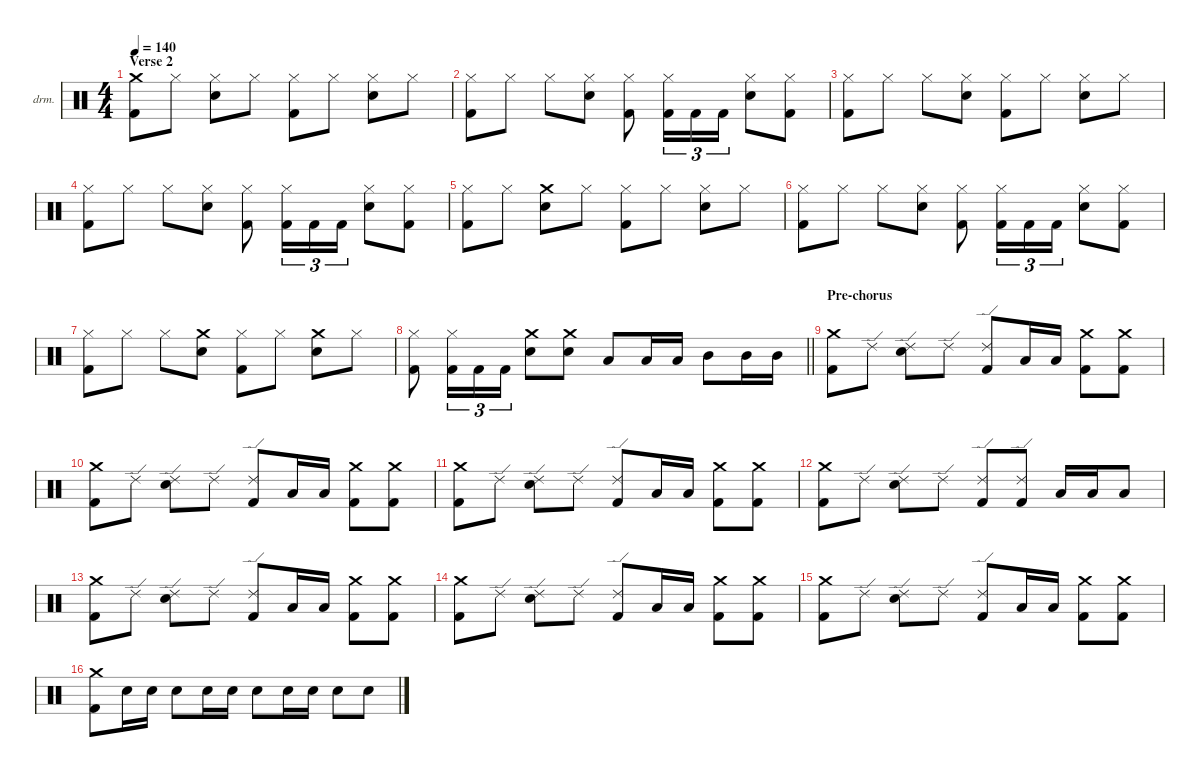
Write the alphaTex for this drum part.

\defaultSystemsLayout 4
\hideDynamics
\bracketExtendMode nobrackets
\firstSystemTrackNameOrientation horizontal
\otherSystemsTrackNameOrientation horizontal
\track ("Drums" "drm.") {instrument percussion}
\staff {score}
\articulation defaults
\ts (4 4)
\section ("" "Verse 2")
\tempo 140
\clef neutral
\ks c
("Kick (hit) 2" "Crash medium (hit)").8{dy f} "Hi-Hat (closed)".8 ("Snare (hit) 2" "Hi-Hat (closed)").8 "Hi-Hat (closed)".8 ("Kick (hit) 2" "Hi-Hat (closed)").8 "Hi-Hat (closed)".8 ("Snare (hit) 2" "Hi-Hat (closed)").8 "Hi-Hat (closed)".8 |
("Kick (hit) 2" "Hi-Hat (closed)").8 "Hi-Hat (closed)".8 "Hi-Hat (closed)".8 ("Snare (hit) 2" "Hi-Hat (closed)").8 ("Kick (hit) 2" "Hi-Hat (closed)").8 ("Kick (hit) 2" "Hi-Hat (closed)").16{tu (3 2)} "Kick (hit) 2".16{tu (3 2)} "Kick (hit) 2".16{tu (3 2)} ("Snare (hit) 2" "Hi-Hat (closed)").8 ("Kick (hit) 2" "Hi-Hat (closed)").8 |
("Hi-Hat (closed)" "Kick (hit) 2").8 "Hi-Hat (closed)".8 "Hi-Hat (closed)".8 ("Snare (hit) 2" "Hi-Hat (closed)").8 ("Hi-Hat (closed)" "Kick (hit) 2").8 "Hi-Hat (closed)".8 ("Snare (hit) 2" "Hi-Hat (closed)").8 "Hi-Hat (closed)".8 |
("Kick (hit) 2" "Hi-Hat (closed)").8 "Hi-Hat (closed)".8 "Hi-Hat (closed)".8 ("Snare (hit) 2" "Hi-Hat (closed)").8 ("Kick (hit) 2" "Hi-Hat (closed)").8 ("Kick (hit) 2" "Hi-Hat (closed)").16{tu (3 2)} "Kick (hit) 2".16{tu (3 2)} "Kick (hit) 2".16{tu (3 2)} ("Snare (hit) 2" "Hi-Hat (closed)").8 ("Kick (hit) 2" "Hi-Hat (closed)").8 |
("Hi-Hat (closed)" "Kick (hit) 2").8 "Hi-Hat (closed)".8 ("Crash medium (hit)" "Snare (hit) 2").8 "Hi-Hat (closed)".8 ("Hi-Hat (closed)" "Kick (hit) 2").8 "Hi-Hat (closed)".8 ("Snare (hit) 2" "Hi-Hat (closed)").8 "Hi-Hat (closed)".8 |
("Kick (hit) 2" "Hi-Hat (closed)").8 "Hi-Hat (closed)".8 "Hi-Hat (closed)".8 ("Snare (hit) 2" "Hi-Hat (closed)").8 ("Kick (hit) 2" "Hi-Hat (closed)").8 ("Kick (hit) 2" "Hi-Hat (closed)").16{tu (3 2)} "Kick (hit) 2".16{tu (3 2)} "Kick (hit) 2".16{tu (3 2)} ("Snare (hit) 2" "Hi-Hat (closed)").8 ("Kick (hit) 2" "Hi-Hat (closed)").8 |
("Kick (hit) 2" "Hi-Hat (closed)").8 "Hi-Hat (closed)".8 "Hi-Hat (closed)".8 ("Crash medium (hit)" "Snare (hit) 2").8 ("Kick (hit) 2" "Hi-Hat (closed)").8 "Hi-Hat (closed)".8 ("Crash medium (hit)" "Snare (hit) 2").8 "Hi-Hat (closed)".8 |
\barLineRight lightlight
("Hi-Hat (closed)" "Kick (hit) 2").8 ("Hi-Hat (closed)" "Kick (hit) 2").16{tu (3 2)} "Kick (hit) 2".16{tu (3 2)} "Kick (hit) 2".16{tu (3 2)} ("Snare (hit) 2" "Crash medium (hit)").8 ("Snare (hit) 2" "Crash medium (hit)").8 "Low Tom (hit)".8 "Low Tom (hit)".16 "Low Tom (hit)".16 "Mid Tom (hit)".8 "Mid Tom (hit)".16 "Mid Tom (hit)".16 |
\section ("" "Pre-chorus")
("Crash medium (hit)" "Kick (hit) 2").8 "Ride (edge) 2".8 ("Snare (hit) 2" "Ride (edge) 2").8 "Ride (edge) 2".8 ("Ride (edge) 2" "Kick (hit) 2").8 "Low Tom (hit)".16 "Low Tom (hit)".16 ("Crash medium (hit)" "Kick (hit) 2").8 ("Crash medium (hit)" "Kick (hit) 2").8 |
("Crash medium (hit)" "Kick (hit) 2").8 "Ride (edge) 2".8 ("Snare (hit) 2" "Ride (edge) 2").8 "Ride (edge) 2".8 ("Ride (edge) 2" "Kick (hit) 2").8 "Low Tom (hit)".16 "Low Tom (hit)".16 ("Crash medium (hit)" "Kick (hit) 2").8 ("Crash medium (hit)" "Kick (hit) 2").8 |
("Crash medium (hit)" "Kick (hit) 2").8 "Ride (edge) 2".8 ("Snare (hit) 2" "Ride (edge) 2").8 "Ride (edge) 2".8 ("Ride (edge) 2" "Kick (hit) 2").8 "Low Tom (hit)".16 "Low Tom (hit)".16 ("Crash medium (hit)" "Kick (hit) 2").8 ("Crash medium (hit)" "Kick (hit) 2").8 |
("Crash medium (hit)" "Kick (hit) 2").8 "Ride (edge) 2".8 ("Snare (hit) 2" "Ride (edge) 2").8 "Ride (edge) 2".8 ("Kick (hit) 2" "Ride (edge) 2").8 ("Ride (edge) 2" "Kick (hit) 2").8 "Low Tom (hit)".16 "Low Tom (hit)".16 "Low Tom (hit)".8 |
("Crash medium (hit)" "Kick (hit) 2").8 "Ride (edge) 2".8 ("Snare (hit) 2" "Ride (edge) 2").8 "Ride (edge) 2".8 ("Ride (edge) 2" "Kick (hit) 2").8 "Low Tom (hit)".16 "Low Tom (hit)".16 ("Crash medium (hit)" "Kick (hit) 2").8 ("Crash medium (hit)" "Kick (hit) 2").8 |
("Crash medium (hit)" "Kick (hit) 2").8 "Ride (edge) 2".8 ("Snare (hit) 2" "Ride (edge) 2").8 "Ride (edge) 2".8 ("Ride (edge) 2" "Kick (hit) 2").8 "Low Tom (hit)".16 "Low Tom (hit)".16 ("Crash medium (hit)" "Kick (hit) 2").8 ("Crash medium (hit)" "Kick (hit) 2").8 |
("Crash medium (hit)" "Kick (hit) 2").8 "Ride (edge) 2".8 ("Snare (hit) 2" "Ride (edge) 2").8 "Ride (edge) 2".8 ("Ride (edge) 2" "Kick (hit) 2").8 "Low Tom (hit)".16 "Low Tom (hit)".16 ("Crash medium (hit)" "Kick (hit) 2").8 ("Crash medium (hit)" "Kick (hit) 2").8 |
("Kick (hit) 2" "Crash medium (hit)").8 "Snare (hit) 2".16 "Snare (hit) 2".16 "Snare (hit) 2".8 "Snare (hit) 2".16 "Snare (hit) 2".16 "Snare (hit) 2".8 "Snare (hit) 2".16 "Snare (hit) 2".16 "Snare (hit) 2".8 "Snare (hit) 2".8
